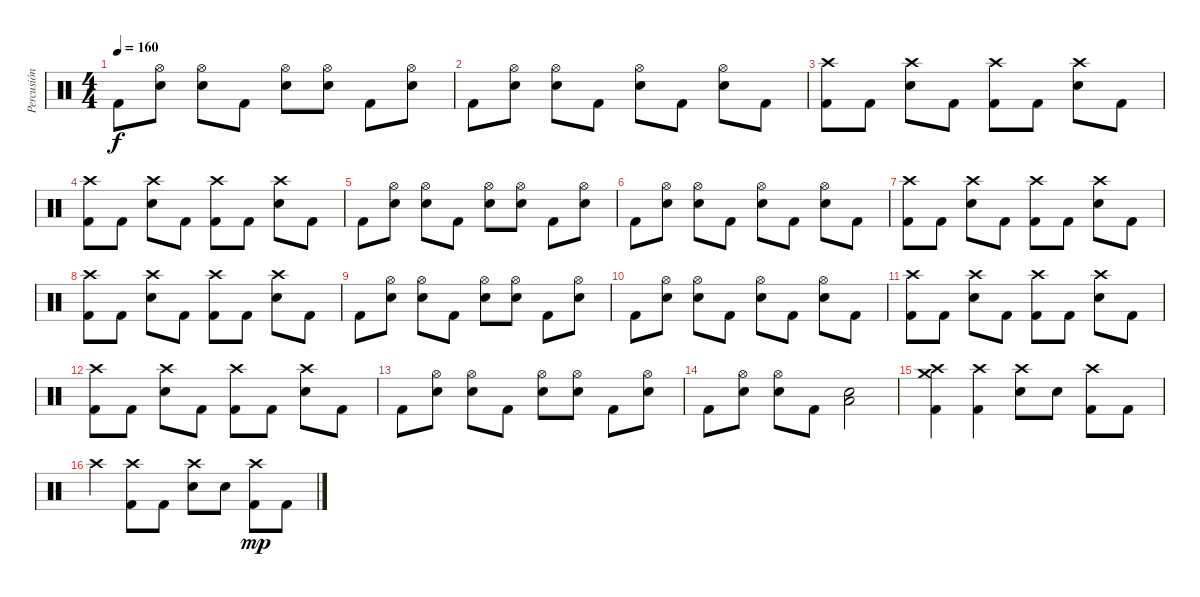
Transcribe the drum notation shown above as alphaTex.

\track ("Percusión" "Percusión") {instrument percussion}
\staff {score}
\articulation defaults
\ts (4 4)
\tempo 160
\clef neutral
\ks c "Kick (hit) 2".8{dy f}
("Electric Snare (hit)" "Hi-Hat (open)").8 ("Electric Snare (hit)" "Hi-Hat (open)").8 "Kick (hit) 2".8 ("Electric Snare (hit)" "Hi-Hat (open)").8 ("Electric Snare (hit)" "Hi-Hat (open)").8 "Kick (hit) 2".8 ("Electric Snare (hit)" "Hi-Hat (open)").8 |
"Kick (hit) 2".8 ("Electric Snare (hit)" "Hi-Hat (open)").8 ("Electric Snare (hit)" "Hi-Hat (open)").8 "Kick (hit) 2".8 ("Electric Snare (hit)" "Hi-Hat (open)").8 "Kick (hit) 2".8 ("Electric Snare (hit)" "Hi-Hat (open)").8 "Kick (hit) 2".8 |
("Crash high (hit)" "Kick (hit) 2").8 "Kick (hit) 2".8 ("Electric Snare (hit)" "Crash high (hit)").8 "Kick (hit) 2".8 ("Crash high (hit)" "Kick (hit) 2").8 "Kick (hit) 2".8 ("Electric Snare (hit)" "Crash high (hit)").8 "Kick (hit) 2".8 |
("Crash high (hit)" "Kick (hit) 2").8 "Kick (hit) 2".8 ("Electric Snare (hit)" "Crash high (hit)").8 "Kick (hit) 2".8 ("Crash high (hit)" "Kick (hit) 2").8 "Kick (hit) 2".8 ("Electric Snare (hit)" "Crash high (hit)").8 "Kick (hit) 2".8 |
"Kick (hit) 2".8 ("Electric Snare (hit)" "Hi-Hat (open)").8 ("Electric Snare (hit)" "Hi-Hat (open)").8 "Kick (hit) 2".8 ("Electric Snare (hit)" "Hi-Hat (open)").8 ("Electric Snare (hit)" "Hi-Hat (open)").8 "Kick (hit) 2".8 ("Electric Snare (hit)" "Hi-Hat (open)").8 |
"Kick (hit) 2".8 ("Electric Snare (hit)" "Hi-Hat (open)").8 ("Electric Snare (hit)" "Hi-Hat (open)").8 "Kick (hit) 2".8 ("Electric Snare (hit)" "Hi-Hat (open)").8 "Kick (hit) 2".8 ("Electric Snare (hit)" "Hi-Hat (open)").8 "Kick (hit) 2".8 |
("Crash high (hit)" "Kick (hit) 2").8 "Kick (hit) 2".8 ("Electric Snare (hit)" "Crash high (hit)").8 "Kick (hit) 2".8 ("Crash high (hit)" "Kick (hit) 2").8 "Kick (hit) 2".8 ("Electric Snare (hit)" "Crash high (hit)").8 "Kick (hit) 2".8 |
("Crash high (hit)" "Kick (hit) 2").8 "Kick (hit) 2".8 ("Electric Snare (hit)" "Crash high (hit)").8 "Kick (hit) 2".8 ("Crash high (hit)" "Kick (hit) 2").8 "Kick (hit) 2".8 ("Electric Snare (hit)" "Crash high (hit)").8 "Kick (hit) 2".8 |
"Kick (hit) 2".8 ("Electric Snare (hit)" "Hi-Hat (open)").8 ("Electric Snare (hit)" "Hi-Hat (open)").8 "Kick (hit) 2".8 ("Electric Snare (hit)" "Hi-Hat (open)").8 ("Electric Snare (hit)" "Hi-Hat (open)").8 "Kick (hit) 2".8 ("Electric Snare (hit)" "Hi-Hat (open)").8 |
"Kick (hit) 2".8 ("Electric Snare (hit)" "Hi-Hat (open)").8 ("Electric Snare (hit)" "Hi-Hat (open)").8 "Kick (hit) 2".8 ("Electric Snare (hit)" "Hi-Hat (open)").8 "Kick (hit) 2".8 ("Electric Snare (hit)" "Hi-Hat (open)").8 "Kick (hit) 2".8 |
("Crash high (hit)" "Kick (hit) 2").8 "Kick (hit) 2".8 ("Electric Snare (hit)" "Crash high (hit)").8 "Kick (hit) 2".8 ("Crash high (hit)" "Kick (hit) 2").8 "Kick (hit) 2".8 ("Electric Snare (hit)" "Crash high (hit)").8 "Kick (hit) 2".8 |
("Crash high (hit)" "Kick (hit) 2").8 "Kick (hit) 2".8 ("Electric Snare (hit)" "Crash high (hit)").8 "Kick (hit) 2".8 ("Crash high (hit)" "Kick (hit) 2").8 "Kick (hit) 2".8 ("Electric Snare (hit)" "Crash high (hit)").8 "Kick (hit) 2".8 |
"Kick (hit) 2".8 ("Electric Snare (hit)" "Hi-Hat (open)").8 ("Electric Snare (hit)" "Hi-Hat (open)").8 "Kick (hit) 2".8 ("Electric Snare (hit)" "Hi-Hat (open)").8 ("Electric Snare (hit)" "Hi-Hat (open)").8 "Kick (hit) 2".8 ("Electric Snare (hit)" "Hi-Hat (open)").8 |
"Kick (hit) 2".8 ("Electric Snare (hit)" "Hi-Hat (open)").8 ("Electric Snare (hit)" "Hi-Hat (open)").8 "Kick (hit) 2".8 ("Low Floor Tom (hit)" "Electric Snare (hit)").2 |
("Crash medium (hit)" "Crash high (hit)" "Kick (hit) 2").4 ("Crash high (hit)" "Kick (hit) 2").4 ("Electric Snare (hit)" "Crash high (hit)").8 "Electric Snare (hit)".8 ("Crash high (hit)" "Kick (hit) 2").8 "Kick (hit) 2".8 |
"Crash high (hit)".4 ("Crash high (hit)" "Kick (hit) 2").8 "Kick (hit) 2".8 ("Electric Snare (hit)" "Crash high (hit)").8 "Electric Snare (hit)".8 ("Crash high (hit)" "Kick (hit) 2").8{dy mp} "Kick (hit) 2".8
